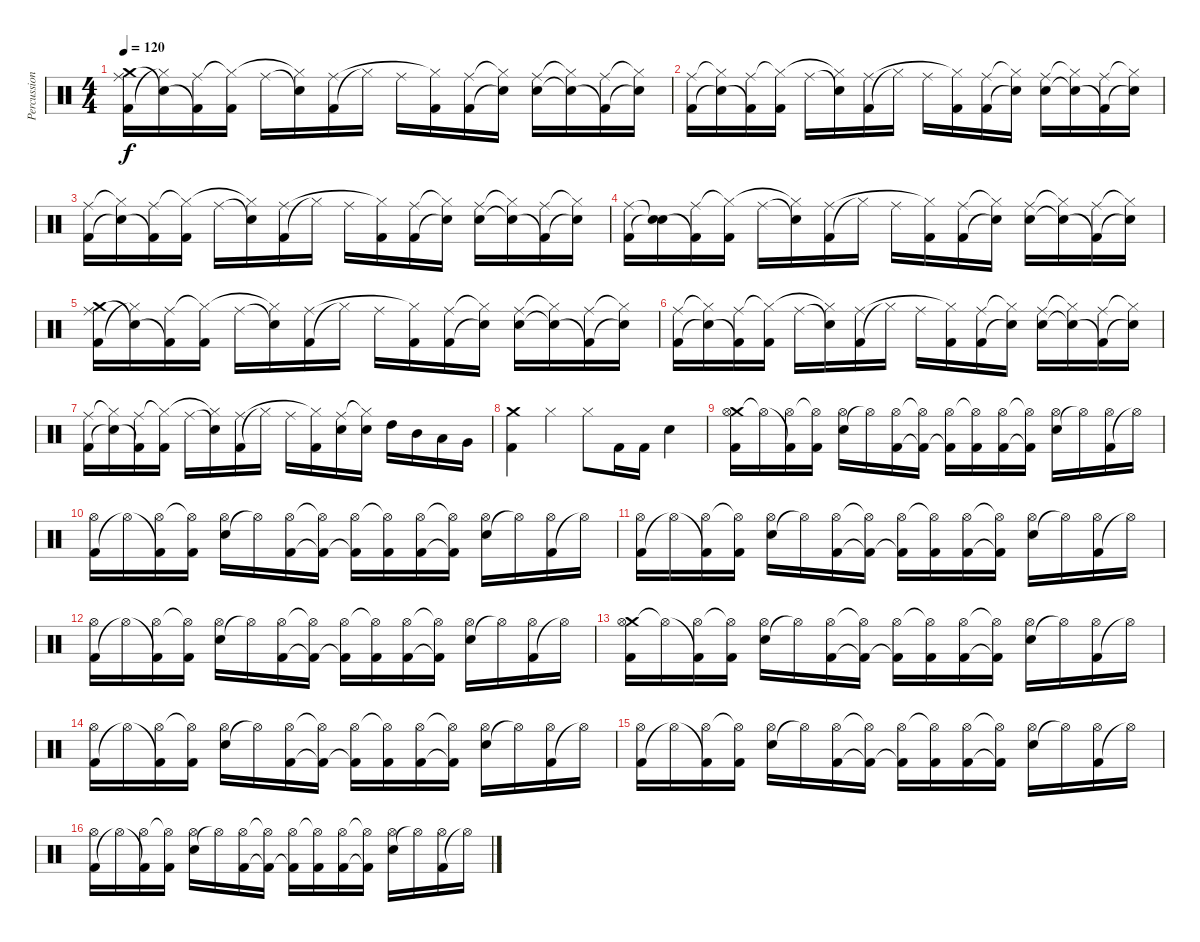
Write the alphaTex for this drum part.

\track ("Percussions" "Percussion") {instrument percussion}
\staff {score}
\articulation defaults
\ts (4 4)
\tempo 120
\clef neutral
\ks c
("Crash medium (hit)" "Kick (hit) 2" "Ride (middle)").16{dy f} ("Snare (hit)"{t} "Hi-Hat (closed)"{t}).16 ("Kick (hit) 2"{t} "Ride (middle)").16 ("Kick (hit) 2" "Hi-Hat (closed)"{t}).16 "Ride (middle)".16 ("Snare (hit)"{t} "Hi-Hat (closed)"{t}).16 ("Kick (hit) 2" "Ride (middle)").16 "Hi-Hat (closed)"{t}.16 "Ride (middle)".16 ("Kick (hit) 2" "Hi-Hat (closed)"{t}).16 ("Kick (hit) 2" "Ride (middle)").16 ("Snare (hit)"{t} "Hi-Hat (closed)"{t}).16 ("Electric Snare (hit)" "Ride (middle)").16 ("Snare (hit)"{t} "Hi-Hat (closed)"{t}).16 ("Kick (hit) 2"{t} "Ride (middle)").16 ("Snare (hit)"{t} "Hi-Hat (closed)"{t}).16 |
("Kick (hit) 2" "Ride (middle)").16 ("Snare (hit)"{t} "Hi-Hat (closed)"{t}).16 ("Kick (hit) 2"{t} "Ride (middle)").16 ("Kick (hit) 2" "Hi-Hat (closed)"{t}).16 "Ride (middle)".16 ("Snare (hit)"{t} "Hi-Hat (closed)"{t}).16 ("Kick (hit) 2" "Ride (middle)").16 "Hi-Hat (closed)"{t}.16 "Ride (middle)".16 ("Kick (hit) 2" "Hi-Hat (closed)"{t}).16 ("Kick (hit) 2" "Ride (middle)").16 ("Snare (hit)"{t} "Hi-Hat (closed)"{t}).16 ("Electric Snare (hit)" "Ride (middle)").16 ("Snare (hit)"{t} "Hi-Hat (closed)"{t}).16 ("Kick (hit) 2"{t} "Ride (middle)").16 ("Snare (hit)"{t} "Hi-Hat (closed)"{t}).16 |
("Kick (hit) 2" "Ride (middle)").16 ("Snare (hit)"{t} "Hi-Hat (closed)"{t}).16 ("Kick (hit) 2"{t} "Ride (middle)").16 ("Kick (hit) 2" "Hi-Hat (closed)"{t}).16 "Ride (middle)".16 ("Snare (hit)"{t} "Hi-Hat (closed)"{t}).16 ("Kick (hit) 2" "Ride (middle)").16 "Hi-Hat (closed)"{t}.16 "Ride (middle)".16 ("Kick (hit) 2" "Hi-Hat (closed)"{t}).16 ("Kick (hit) 2" "Ride (middle)").16 ("Snare (hit)"{t} "Hi-Hat (closed)"{t}).16 ("Electric Snare (hit)" "Ride (middle)").16 ("Snare (hit)"{t} "Hi-Hat (closed)"{t}).16 ("Kick (hit) 2"{t} "Ride (middle)").16 ("Snare (hit)"{t} "Hi-Hat (closed)"{t}).16 |
("Kick (hit) 2" "Ride (middle)").16 ("Snare (hit)"{t} "Snare (hit)"{t}).16 ("Kick (hit) 2"{t} "Ride (middle)").16 ("Kick (hit) 2" "Hi-Hat (closed)"{t}).16 "Ride (middle)".16 ("Snare (hit)"{t} "Hi-Hat (closed)"{t}).16 ("Kick (hit) 2" "Ride (middle)").16 "Hi-Hat (closed)"{t}.16 "Ride (middle)".16 ("Kick (hit) 2" "Hi-Hat (closed)"{t}).16 ("Kick (hit) 2" "Ride (middle)").16 ("Snare (hit)"{t} "Hi-Hat (closed)"{t}).16 ("Electric Snare (hit)" "Ride (middle)").16 ("Snare (hit)"{t} "Hi-Hat (closed)"{t}).16 ("Kick (hit) 2"{t} "Ride (middle)").16 ("Snare (hit)"{t} "Hi-Hat (closed)"{t}).16 |
("Crash medium (hit)" "Kick (hit) 2" "Ride (middle)").16 ("Snare (hit)"{t} "Hi-Hat (closed)"{t}).16 ("Kick (hit) 2"{t} "Ride (middle)").16 ("Kick (hit) 2" "Hi-Hat (closed)"{t}).16 "Ride (middle)".16 ("Snare (hit)"{t} "Hi-Hat (closed)"{t}).16 ("Kick (hit) 2" "Ride (middle)").16 "Hi-Hat (closed)"{t}.16 "Ride (middle)".16 ("Kick (hit) 2" "Hi-Hat (closed)"{t}).16 ("Kick (hit) 2" "Ride (middle)").16 ("Snare (hit)"{t} "Hi-Hat (closed)"{t}).16 ("Electric Snare (hit)" "Ride (middle)").16 ("Snare (hit)"{t} "Hi-Hat (closed)"{t}).16 ("Kick (hit) 2"{t} "Ride (middle)").16 ("Snare (hit)"{t} "Hi-Hat (closed)"{t}).16 |
("Kick (hit) 2" "Ride (middle)").16 ("Snare (hit)"{t} "Hi-Hat (closed)"{t}).16 ("Kick (hit) 2"{t} "Ride (middle)").16 ("Kick (hit) 2" "Hi-Hat (closed)"{t}).16 "Ride (middle)".16 ("Snare (hit)"{t} "Hi-Hat (closed)"{t}).16 ("Kick (hit) 2" "Ride (middle)").16 "Hi-Hat (closed)"{t}.16 "Ride (middle)".16 ("Kick (hit) 2" "Hi-Hat (closed)"{t}).16 ("Kick (hit) 2" "Ride (middle)").16 ("Snare (hit)"{t} "Hi-Hat (closed)"{t}).16 ("Electric Snare (hit)" "Ride (middle)").16 ("Snare (hit)"{t} "Hi-Hat (closed)"{t}).16 ("Kick (hit) 2"{t} "Ride (middle)").16 ("Snare (hit)"{t} "Hi-Hat (closed)"{t}).16 |
("Kick (hit) 2" "Ride (middle)").16 ("Snare (hit)"{t} "Hi-Hat (closed)"{t}).16 ("Kick (hit) 2"{t} "Ride (middle)").16 ("Kick (hit) 2" "Hi-Hat (closed)"{t}).16 "Ride (middle)".16 ("Snare (hit)"{t} "Hi-Hat (closed)"{t}).16 ("Kick (hit) 2" "Ride (middle)").16 "Hi-Hat (closed)"{t}.16 "Ride (middle)".16 ("Kick (hit) 2" "Hi-Hat (closed)"{t}).16 ("Electric Snare (hit)" "Ride (middle)").16 ("Electric Snare (hit)" "Hi-Hat (closed)"{t}).16 "High Tom (hit)".16 "Mid Tom (hit)".16 "Low Tom (hit)".16 "Very Low Tom (hit)".16 |
("Crash medium (hit)" "Kick (hit) 2").4 "Hi-Hat (closed)".4 "Hi-Hat (closed)".8 "Kick (hit) 2".16 "Kick (hit) 2".16 "Electric Snare (hit)".4 |
("Crash medium (hit)" "Kick (hit) 2" "Hi-Hat (open)").16 "Hi-Hat (open)"{t}.16 ("Kick (hit) 2"{t} "Hi-Hat (open)").16 ("Kick (hit) 2" "Hi-Hat (open)"{t}).16 ("Electric Snare (hit)" "Hi-Hat (open)").16 "Hi-Hat (open)"{t}.16 ("Kick (hit) 2" "Hi-Hat (open)").16 ("Kick (hit) 2"{t} "Hi-Hat (open)"{t}).16 ("Kick (hit) 2"{t} "Hi-Hat (open)").16 ("Kick (hit) 2" "Hi-Hat (open)"{t}).16 ("Kick (hit) 2" "Hi-Hat (open)").16 ("Kick (hit) 2"{t} "Hi-Hat (open)"{t}).16 ("Electric Snare (hit)" "Hi-Hat (open)").16 "Hi-Hat (open)"{t}.16 ("Kick (hit) 2" "Hi-Hat (open)").16 "Hi-Hat (open)"{t}.16 |
("Kick (hit) 2" "Hi-Hat (open)").16 "Hi-Hat (open)"{t}.16 ("Kick (hit) 2"{t} "Hi-Hat (open)").16 ("Kick (hit) 2" "Hi-Hat (open)"{t}).16 ("Electric Snare (hit)" "Hi-Hat (open)").16 "Hi-Hat (open)"{t}.16 ("Kick (hit) 2" "Hi-Hat (open)").16 ("Kick (hit) 2"{t} "Hi-Hat (open)"{t}).16 ("Kick (hit) 2"{t} "Hi-Hat (open)").16 ("Kick (hit) 2" "Hi-Hat (open)"{t}).16 ("Kick (hit) 2" "Hi-Hat (open)").16 ("Kick (hit) 2"{t} "Hi-Hat (open)"{t}).16 ("Electric Snare (hit)" "Hi-Hat (open)").16 "Hi-Hat (open)"{t}.16 ("Kick (hit) 2" "Hi-Hat (open)").16 "Hi-Hat (open)"{t}.16 |
("Kick (hit) 2" "Hi-Hat (open)").16 "Hi-Hat (open)"{t}.16 ("Kick (hit) 2"{t} "Hi-Hat (open)").16 ("Kick (hit) 2" "Hi-Hat (open)"{t}).16 ("Electric Snare (hit)" "Hi-Hat (open)").16 "Hi-Hat (open)"{t}.16 ("Kick (hit) 2" "Hi-Hat (open)").16 ("Kick (hit) 2"{t} "Hi-Hat (open)"{t}).16 ("Kick (hit) 2"{t} "Hi-Hat (open)").16 ("Kick (hit) 2" "Hi-Hat (open)"{t}).16 ("Kick (hit) 2" "Hi-Hat (open)").16 ("Kick (hit) 2"{t} "Hi-Hat (open)"{t}).16 ("Electric Snare (hit)" "Hi-Hat (open)").16 "Hi-Hat (open)"{t}.16 ("Kick (hit) 2" "Hi-Hat (open)").16 "Hi-Hat (open)"{t}.16 |
("Kick (hit) 2" "Hi-Hat (open)").16 "Hi-Hat (open)"{t}.16 ("Kick (hit) 2"{t} "Hi-Hat (open)").16 ("Kick (hit) 2" "Hi-Hat (open)"{t}).16 ("Electric Snare (hit)" "Hi-Hat (open)").16 "Hi-Hat (open)"{t}.16 ("Kick (hit) 2" "Hi-Hat (open)").16 ("Kick (hit) 2"{t} "Hi-Hat (open)"{t}).16 ("Kick (hit) 2"{t} "Hi-Hat (open)").16 ("Kick (hit) 2" "Hi-Hat (open)"{t}).16 ("Kick (hit) 2" "Hi-Hat (open)").16 ("Kick (hit) 2"{t} "Hi-Hat (open)"{t}).16 ("Electric Snare (hit)" "Hi-Hat (open)").16 "Hi-Hat (open)"{t}.16 ("Kick (hit) 2" "Hi-Hat (open)").16 "Hi-Hat (open)"{t}.16 |
("Crash medium (hit)" "Kick (hit) 2" "Hi-Hat (open)").16 "Hi-Hat (open)"{t}.16 ("Kick (hit) 2"{t} "Hi-Hat (open)").16 ("Kick (hit) 2" "Hi-Hat (open)"{t}).16 ("Electric Snare (hit)" "Hi-Hat (open)").16 "Hi-Hat (open)"{t}.16 ("Kick (hit) 2" "Hi-Hat (open)").16 ("Kick (hit) 2"{t} "Hi-Hat (open)"{t}).16 ("Kick (hit) 2"{t} "Hi-Hat (open)").16 ("Kick (hit) 2" "Hi-Hat (open)"{t}).16 ("Kick (hit) 2" "Hi-Hat (open)").16 ("Kick (hit) 2"{t} "Hi-Hat (open)"{t}).16 ("Electric Snare (hit)" "Hi-Hat (open)").16 "Hi-Hat (open)"{t}.16 ("Kick (hit) 2" "Hi-Hat (open)").16 "Hi-Hat (open)"{t}.16 |
("Kick (hit) 2" "Hi-Hat (open)").16 "Hi-Hat (open)"{t}.16 ("Kick (hit) 2"{t} "Hi-Hat (open)").16 ("Kick (hit) 2" "Hi-Hat (open)"{t}).16 ("Electric Snare (hit)" "Hi-Hat (open)").16 "Hi-Hat (open)"{t}.16 ("Kick (hit) 2" "Hi-Hat (open)").16 ("Kick (hit) 2"{t} "Hi-Hat (open)"{t}).16 ("Kick (hit) 2"{t} "Hi-Hat (open)").16 ("Kick (hit) 2" "Hi-Hat (open)"{t}).16 ("Kick (hit) 2" "Hi-Hat (open)").16 ("Kick (hit) 2"{t} "Hi-Hat (open)"{t}).16 ("Electric Snare (hit)" "Hi-Hat (open)").16 "Hi-Hat (open)"{t}.16 ("Kick (hit) 2" "Hi-Hat (open)").16 "Hi-Hat (open)"{t}.16 |
("Kick (hit) 2" "Hi-Hat (open)").16 "Hi-Hat (open)"{t}.16 ("Kick (hit) 2"{t} "Hi-Hat (open)").16 ("Kick (hit) 2" "Hi-Hat (open)"{t}).16 ("Electric Snare (hit)" "Hi-Hat (open)").16 "Hi-Hat (open)"{t}.16 ("Kick (hit) 2" "Hi-Hat (open)").16 ("Kick (hit) 2"{t} "Hi-Hat (open)"{t}).16 ("Kick (hit) 2"{t} "Hi-Hat (open)").16 ("Kick (hit) 2" "Hi-Hat (open)"{t}).16 ("Kick (hit) 2" "Hi-Hat (open)").16 ("Kick (hit) 2"{t} "Hi-Hat (open)"{t}).16 ("Electric Snare (hit)" "Hi-Hat (open)").16 "Hi-Hat (open)"{t}.16 ("Kick (hit) 2" "Hi-Hat (open)").16 "Hi-Hat (open)"{t}.16 |
("Kick (hit) 2" "Hi-Hat (open)").16 "Hi-Hat (open)"{t}.16 ("Kick (hit) 2"{t} "Hi-Hat (open)").16 ("Kick (hit) 2" "Hi-Hat (open)"{t}).16 ("Electric Snare (hit)" "Hi-Hat (open)").16 "Hi-Hat (open)"{t}.16 ("Kick (hit) 2" "Hi-Hat (open)").16 ("Kick (hit) 2"{t} "Hi-Hat (open)"{t}).16 ("Kick (hit) 2"{t} "Hi-Hat (open)").16 ("Kick (hit) 2" "Hi-Hat (open)"{t}).16 ("Kick (hit) 2" "Hi-Hat (open)").16 ("Kick (hit) 2"{t} "Hi-Hat (open)"{t}).16 ("Electric Snare (hit)" "Hi-Hat (open)").16 "Hi-Hat (open)"{t}.16 ("Kick (hit) 2" "Hi-Hat (open)").16 "Hi-Hat (open)"{t}.16
